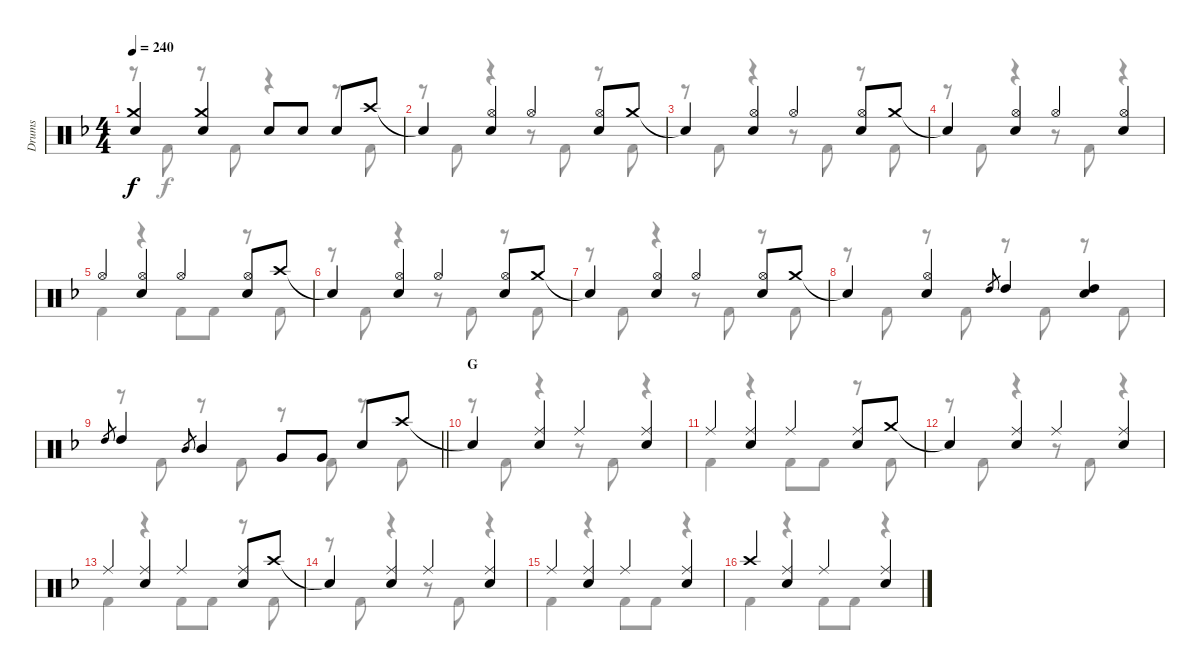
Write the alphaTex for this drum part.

\track ("Drums" "Drums") {instrument percussion}
\staff {score}
\articulation defaults
\voice
\ts (4 4)
\tempo 240
\clef neutral
\ks f
("Crash medium (hit)" "Snare (hit) 2").4{dy f} ("Crash medium (hit)" "Snare (hit) 2").4 "Snare (hit) 2".8 "Snare (hit) 2".8 "Snare (hit) 2".8 "Crash high (hit)".8 |
"Snare (hit)"{t}.4 ("Hi-Hat (open)" "Snare (hit) 2").4 "Hi-Hat (open)".4 ("Hi-Hat (open)" "Snare (hit) 2").8 "Crash medium (hit)".8 |
"Snare (hit)"{t}.4 ("Hi-Hat (open)" "Snare (hit) 2").4 "Hi-Hat (open)".4 ("Hi-Hat (open)" "Snare (hit) 2").8 "Crash medium (hit)".8 |
"Snare (hit)"{t}.4 ("Hi-Hat (open)" "Snare (hit) 2").4 "Hi-Hat (open)".4 ("Hi-Hat (open)" "Snare (hit) 2").4 |
"Hi-Hat (open)".4 ("Hi-Hat (open)" "Snare (hit) 2").4 "Hi-Hat (open)".4 ("Hi-Hat (open)" "Snare (hit) 2").8 "Crash high (hit)".8 |
"Snare (hit)"{t}.4 ("Hi-Hat (open)" "Snare (hit) 2").4 "Hi-Hat (open)".4 ("Hi-Hat (open)" "Snare (hit) 2").8 "Crash medium (hit)".8 |
"Snare (hit)"{t}.4 ("Hi-Hat (open)" "Snare (hit) 2").4 "Hi-Hat (open)".4 ("Hi-Hat (open)" "Snare (hit) 2").8 "Crash medium (hit)".8 |
"Snare (hit)"{t}.4 ("Hi-Hat (open)" "Snare (hit) 2").4 "High Tom (hit)".8{gr} "High Tom (hit)".4 ("High Tom (hit)" "Snare (hit) 2").4 |
\barLineRight lightlight "High Tom (hit)".8{gr} "High Tom (hit)".4 "Mid Tom (hit)".8{gr} "Mid Tom (hit)".4 "Very Low Tom (hit)".8 "Very Low Tom (hit)".8 "Snare (hit) 2".8 "Crash high (hit)".8
|
\section ("" "G")
"Snare (hit)"{t}.4 ("Ride (middle)" "Snare (hit) 2").4 "Ride (middle)".4 ("Ride (middle)" "Snare (hit) 2").4 |
"Ride (middle)".4 ("Ride (middle)" "Snare (hit) 2").4 "Ride (middle)".4 ("Ride (middle)" "Snare (hit) 2").8 "Crash medium (hit)".8 |
"Snare (hit)"{t}.4 ("Ride (middle)" "Snare (hit) 2").4 "Ride (middle)".4 ("Ride (middle)" "Snare (hit) 2").4 |
"Ride (middle)".4 ("Ride (middle)" "Snare (hit) 2").4 "Ride (middle)".4 ("Ride (middle)" "Snare (hit) 2").8 "Crash high (hit)".8 |
"Snare (hit)"{t}.4 ("Ride (middle)" "Snare (hit) 2").4 "Ride (middle)".4 ("Ride (middle)" "Snare (hit) 2").4 |
"Ride (middle)".4 ("Ride (middle)" "Snare (hit) 2").4 "Ride (middle)".4 ("Ride (middle)" "Snare (hit) 2").4 |
"Crash high (hit)".4 ("Ride (middle)" "Snare (hit) 2").4 "Ride (middle)".4 ("Ride (middle)" "Snare (hit) 2").4
\voice
\clef neutral
\ottava regular
\simile none
\ks f
r.8{dy f} "Kick (hit) 2".8 r.8 "Kick (hit) 2".8 r.4 r.8 "Kick (hit) 2".8 |
r.8 "Kick (hit) 2".8 r.4 r.8 "Kick (hit) 2".8 r.8 "Kick (hit) 2".8 |
r.8 "Kick (hit) 2".8 r.4 r.8 "Kick (hit) 2".8 r.8 "Kick (hit) 2".8 |
r.8 "Kick (hit) 2".8 r.4 r.8 "Kick (hit) 2".8 r.4 |
"Kick (hit) 2".4 r.4 "Kick (hit) 2".8 "Kick (hit) 2".8 r.8 "Kick (hit) 2".8 |
r.8 "Kick (hit) 2".8 r.4 r.8 "Kick (hit) 2".8 r.8 "Kick (hit) 2".8 |
r.8 "Kick (hit) 2".8 r.4 r.8 "Kick (hit) 2".8 r.8 "Kick (hit) 2".8 |
r.8 "Kick (hit) 2".8 r.8 "Kick (hit) 2".8 r.8 "Kick (hit) 2".8 r.8 "Kick (hit) 2".8 |
\barLineRight lightlight
r.8 "Kick (hit) 2".8 r.8 "Kick (hit) 2".8 r.8 "Kick (hit) 2".8 r.8 "Kick (hit) 2".8 |
r.8 "Kick (hit) 2".8 r.4 r.8 "Kick (hit) 2".8 r.4 |
"Kick (hit) 2".4 r.4 "Kick (hit) 2".8 "Kick (hit) 2".8 r.8 "Kick (hit) 2".8 |
r.8 "Kick (hit) 2".8 r.4 r.8 "Kick (hit) 2".8 r.4 |
"Kick (hit) 2".4 r.4 "Kick (hit) 2".8 "Kick (hit) 2".8 r.8 "Kick (hit) 2".8 |
r.8 "Kick (hit) 2".8 r.4 r.8 "Kick (hit) 2".8 r.4 |
"Kick (hit) 2".4 r.4 "Kick (hit) 2".8 "Kick (hit) 2".8 r.4 |
"Kick (hit) 2".4 r.4 "Kick (hit) 2".8 "Kick (hit) 2".8 r.4
